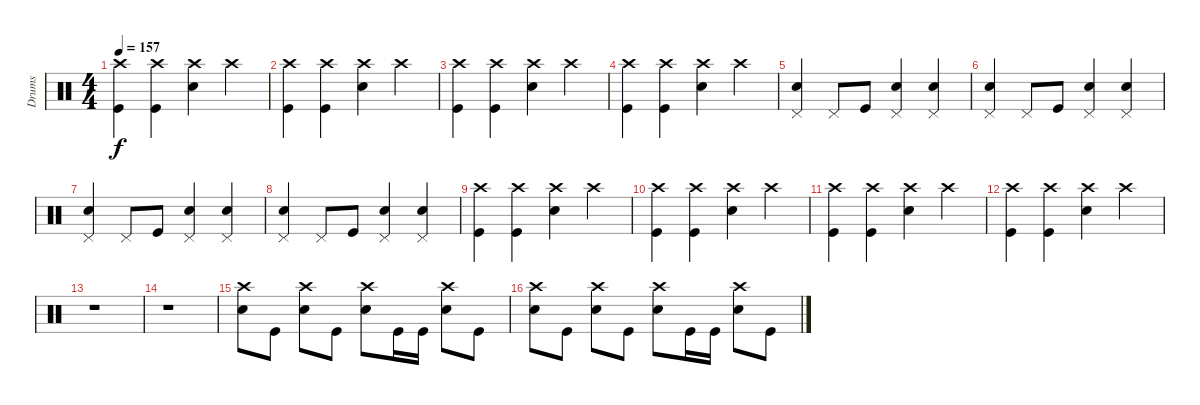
\track ("Drums" "Drums") {instrument percussion}
\staff {score}
\articulation defaults
\ts (4 4)
\tempo 157
\clef neutral
\ks c
("Crash high (hit)" "Kick (hit)").4{dy f} ("Crash high (hit)" "Kick (hit)").4 ("Crash high (hit)" "Snare (hit) 2").4 "Crash high (hit)".4 |
("Crash high (hit)" "Kick (hit)").4 ("Crash high (hit)" "Kick (hit)").4 ("Crash high (hit)" "Snare (hit) 2").4 "Crash high (hit)".4 |
("Crash high (hit)" "Kick (hit)").4 ("Crash high (hit)" "Kick (hit)").4 ("Crash high (hit)" "Snare (hit) 2").4 "Crash high (hit)".4 |
("Crash high (hit)" "Kick (hit)").4 ("Crash high (hit)" "Kick (hit)").4 ("Crash high (hit)" "Snare (hit) 2").4 "Crash high (hit)".4 |
("Pedal Hi-Hat (hit)" "Snare (hit) 2").4 "Pedal Hi-Hat (hit)".8 "Kick (hit)".8 ("Pedal Hi-Hat (hit)" "Snare (hit) 2").4 ("Pedal Hi-Hat (hit)" "Snare (hit) 2").4 |
("Pedal Hi-Hat (hit)" "Snare (hit) 2").4 "Pedal Hi-Hat (hit)".8 "Kick (hit)".8 ("Pedal Hi-Hat (hit)" "Snare (hit) 2").4 ("Pedal Hi-Hat (hit)" "Snare (hit) 2").4 |
("Pedal Hi-Hat (hit)" "Snare (hit) 2").4 "Pedal Hi-Hat (hit)".8 "Kick (hit)".8 ("Pedal Hi-Hat (hit)" "Snare (hit) 2").4 ("Pedal Hi-Hat (hit)" "Snare (hit) 2").4 |
("Pedal Hi-Hat (hit)" "Snare (hit) 2").4 "Pedal Hi-Hat (hit)".8 "Kick (hit)".8 ("Pedal Hi-Hat (hit)" "Snare (hit) 2").4 ("Pedal Hi-Hat (hit)" "Snare (hit) 2").4 |
("Crash high (hit)" "Kick (hit)").4 ("Crash high (hit)" "Kick (hit)").4 ("Crash high (hit)" "Snare (hit) 2").4 "Crash high (hit)".4 |
("Crash high (hit)" "Kick (hit)").4 ("Crash high (hit)" "Kick (hit)").4 ("Crash high (hit)" "Snare (hit) 2").4 "Crash high (hit)".4 |
("Crash high (hit)" "Kick (hit)").4 ("Crash high (hit)" "Kick (hit)").4 ("Crash high (hit)" "Snare (hit) 2").4 "Crash high (hit)".4 |
("Crash high (hit)" "Kick (hit)").4 ("Crash high (hit)" "Kick (hit)").4 ("Crash high (hit)" "Snare (hit) 2").4 "Crash high (hit)".4 |
r.1 |
r.1 |
("Crash high (hit)" "Snare (hit) 2").8 "Kick (hit)".8 ("Crash high (hit)" "Snare (hit) 2").8 "Kick (hit)".8 ("Crash high (hit)" "Snare (hit) 2").8 "Kick (hit)".16 "Kick (hit)".16 ("Crash high (hit)" "Snare (hit) 2").8 "Kick (hit)".8 |
("Crash high (hit)" "Snare (hit) 2").8 "Kick (hit)".8 ("Crash high (hit)" "Snare (hit) 2").8 "Kick (hit)".8 ("Crash high (hit)" "Snare (hit) 2").8 "Kick (hit)".16 "Kick (hit)".16 ("Crash high (hit)" "Snare (hit) 2").8 "Kick (hit)".8
